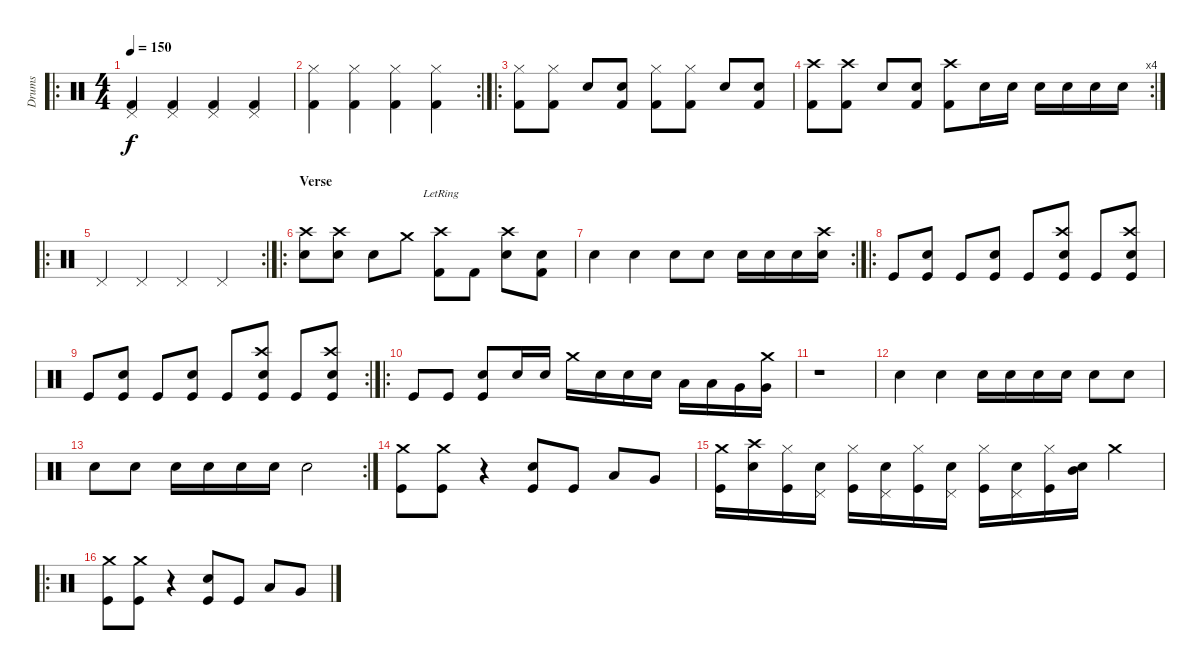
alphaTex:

\track ("Drums" "Drums") {instrument percussion}
\staff {score}
\articulation defaults
\ro
\ts (4 4)
\tempo 150
\clef neutral
\ks c
("Kick (hit) 2" "Pedal Hi-Hat (hit)").4{dy f} ("Kick (hit) 2" "Pedal Hi-Hat (hit)").4 ("Kick (hit) 2" "Pedal Hi-Hat (hit)").4 ("Kick (hit) 2" "Pedal Hi-Hat (hit)").4 |
\rc 2
("Hi-Hat (closed)" "Kick (hit) 2").4 ("Hi-Hat (closed)" "Kick (hit) 2").4 ("Hi-Hat (closed)" "Kick (hit) 2").4 ("Hi-Hat (closed)" "Kick (hit) 2").4 |
\ro
("Hi-Hat (closed)" "Kick (hit) 2").8 ("Hi-Hat (closed)" "Kick (hit) 2").8 "Snare (hit) 2".8 ("Snare (hit) 2" "Kick (hit) 2").8 ("Hi-Hat (closed)" "Kick (hit) 2").8 ("Hi-Hat (closed)" "Kick (hit) 2").8 "Snare (hit) 2".8 ("Snare (hit) 2" "Kick (hit) 2").8 |
\rc 4
("Crash high (hit)" "Kick (hit) 2").8 ("Crash high (hit)" "Kick (hit) 2").8 "Snare (hit) 2".8 ("Snare (hit) 2" "Kick (hit) 2").8 ("Crash high (hit)" "Kick (hit) 2").8 "Snare (hit) 2".16 "Snare (hit) 2".16 "Snare (hit) 2".16 "Snare (hit) 2".16 "Snare (hit) 2".16 "Snare (hit) 2".16 |
\ro
\rc 2 "Pedal Hi-Hat (hit)".4 "Pedal Hi-Hat (hit)".4 "Pedal Hi-Hat (hit)".4 "Pedal Hi-Hat (hit)".4
|
\ro
\section ("" "Verse")
("Crash high (hit)" "Snare (hit) 2").8 ("Crash high (hit)" "Snare (hit) 2").8 "Snare (hit) 2".8 "Crash medium (hit)".8 ("Crash high (hit)"{lr} "Kick (hit) 2").8 "Kick (hit) 2".8 ("Crash high (hit)" "Snare (hit) 2").8 ("Snare (hit) 2" "Kick (hit) 2").8 |
\rc 2 "Snare (hit) 2".4 "Snare (hit) 2".4 "Snare (hit) 2".8 "Snare (hit) 2".8 "Snare (hit) 2".16 "Snare (hit) 2".16 "Snare (hit) 2".16
("Crash high (hit)" "Snare (hit) 2").16 |
\ro "Kick (hit)".8
("Snare (hit) 2" "Kick (hit)").8 "Kick (hit)".8 ("Snare (hit) 2" "Kick (hit)").8 "Kick (hit)".8 ("Crash high (hit)" "Snare (hit) 2" "Kick (hit)").8 "Kick (hit)".8 ("Crash high (hit)" "Snare (hit) 2" "Kick (hit)").8 |
\rc 2 "Kick (hit)".8
("Snare (hit) 2" "Kick (hit)").8 "Kick (hit)".8 ("Snare (hit) 2" "Kick (hit)").8 "Kick (hit)".8 ("Crash high (hit)" "Snare (hit) 2" "Kick (hit)").8 "Kick (hit)".8 ("Crash high (hit)" "Snare (hit) 2" "Kick (hit)").8 |
\ro "Kick (hit)".8 "Kick (hit)".8
("Snare (hit) 2" "Kick (hit)").8 "Snare (hit) 2".16 "Snare (hit) 2".16 "Crash medium (hit)".16 "Snare (hit) 2".16 "Snare (hit) 2".16 "Snare (hit) 2".16 "Low Floor Tom (hit)".16 "Low Floor Tom (hit)".16 "Very Low Tom (hit)".16 ("Very Low Tom (hit)" "Crash medium (hit)").16 |
r.1 |
"Snare (hit) 2".4 "Snare (hit) 2".4 "Snare (hit) 2".16 "Snare (hit) 2".16 "Snare (hit) 2".16 "Snare (hit) 2".16 "Snare (hit) 2".8 "Snare (hit) 2".8 |
\rc 2 "Snare (hit) 2".8 "Snare (hit) 2".8 "Snare (hit) 2".16 "Snare (hit) 2".16 "Snare (hit) 2".16 "Snare (hit) 2".16 "Snare (hit) 2".2
|
("Crash medium (hit)" "Kick (hit)").8 ("Crash medium (hit)" "Kick (hit)").8 r.4 ("Snare (hit) 2" "Kick (hit)").8 "Kick (hit)".8 "Low Floor Tom (hit)".8 "Very Low Tom (hit)".8 |
("Crash medium (hit)" "Kick (hit)").16 ("Crash high (hit)" "Snare (hit) 2").16 ("Hi-Hat (closed)" "Kick (hit)").16 ("Pedal Hi-Hat (hit)" "Snare (hit) 2").16 ("Hi-Hat (closed)" "Kick (hit)").16 ("Pedal Hi-Hat (hit)" "Snare (hit) 2").16 ("Hi-Hat (closed)" "Kick (hit)").16 ("Pedal Hi-Hat (hit)" "Snare (hit) 2").16 ("Hi-Hat (closed)" "Kick (hit)").16 ("Pedal Hi-Hat (hit)" "Snare (hit) 2").16 ("Hi-Hat (closed)" "Kick (hit)").16 ("Mid Tom (hit)" "Snare (hit) 2").16 "Crash medium (hit)".4 |
\ro
("Crash medium (hit)" "Kick (hit)").8 ("Crash medium (hit)" "Kick (hit)").8 r.4 ("Snare (hit) 2" "Kick (hit)").8 "Kick (hit)".8 "Low Floor Tom (hit)".8 "Very Low Tom (hit)".8
